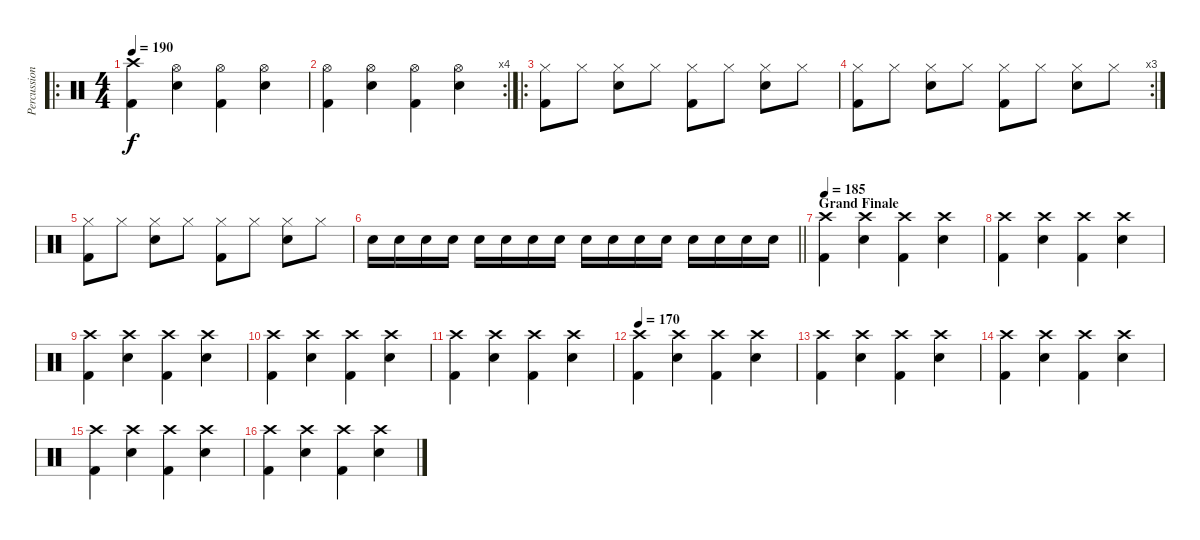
\track ("Percussion" "Percussion") {instrument percussion}
\staff {score}
\articulation defaults
\ro
\ts (4 4)
\tempo 190
\clef neutral
\ks c
("Crash high (hit)" "Kick (hit) 2").4{dy f} ("Hi-Hat (open)" "Snare (hit) 2").4 ("Hi-Hat (open)" "Kick (hit) 2").4 ("Hi-Hat (open)" "Snare (hit) 2").4 |
\rc 4
("Hi-Hat (open)" "Kick (hit) 2").4 ("Hi-Hat (open)" "Snare (hit) 2").4 ("Hi-Hat (open)" "Kick (hit) 2").4 ("Hi-Hat (open)" "Snare (hit) 2").4 |
\ro
("Hi-Hat (closed)" "Kick (hit) 2").8 "Hi-Hat (closed)".8 ("Hi-Hat (closed)" "Snare (hit) 2").8 "Hi-Hat (closed)".8 ("Hi-Hat (closed)" "Kick (hit) 2").8 "Hi-Hat (closed)".8 ("Hi-Hat (closed)" "Snare (hit) 2").8 "Hi-Hat (closed)".8 |
\rc 3
("Hi-Hat (closed)" "Kick (hit) 2").8 "Hi-Hat (closed)".8 ("Hi-Hat (closed)" "Snare (hit) 2").8 "Hi-Hat (closed)".8 ("Hi-Hat (closed)" "Kick (hit) 2").8 "Hi-Hat (closed)".8 ("Hi-Hat (closed)" "Snare (hit) 2").8 "Hi-Hat (closed)".8 |
("Hi-Hat (closed)" "Kick (hit) 2").8 "Hi-Hat (closed)".8 ("Hi-Hat (closed)" "Snare (hit) 2").8 "Hi-Hat (closed)".8 ("Hi-Hat (closed)" "Kick (hit) 2").8 "Hi-Hat (closed)".8 ("Hi-Hat (closed)" "Snare (hit) 2").8 "Hi-Hat (closed)".8 |
\barLineRight lightlight "Snare (hit) 2".16 "Snare (hit) 2".16 "Snare (hit) 2".16 "Snare (hit) 2".16 "Snare (hit) 2".16 "Snare (hit) 2".16 "Snare (hit) 2".16 "Snare (hit) 2".16 "Snare (hit) 2".16 "Snare (hit) 2".16 "Snare (hit) 2".16 "Snare (hit) 2".16 "Snare (hit) 2".16 "Snare (hit) 2".16 "Snare (hit) 2".16 "Snare (hit) 2".16
|
\section ("" "Grand Finale")
\tempo 185
("Crash high (hit)" "Kick (hit) 2").4 ("Crash high (hit)" "Snare (hit) 2").4 ("Crash high (hit)" "Kick (hit) 2").4 ("Crash high (hit)" "Snare (hit) 2").4 |
("Crash high (hit)" "Kick (hit) 2").4 ("Crash high (hit)" "Snare (hit) 2").4 ("Crash high (hit)" "Kick (hit) 2").4 ("Crash high (hit)" "Snare (hit) 2").4 |
("Crash high (hit)" "Kick (hit) 2").4 ("Crash high (hit)" "Snare (hit) 2").4 ("Crash high (hit)" "Kick (hit) 2").4 ("Crash high (hit)" "Snare (hit) 2").4 |
("Crash high (hit)" "Kick (hit) 2").4 ("Crash high (hit)" "Snare (hit) 2").4 ("Crash high (hit)" "Kick (hit) 2").4 ("Crash high (hit)" "Snare (hit) 2").4 |
("Crash high (hit)" "Kick (hit) 2").4 ("Crash high (hit)" "Snare (hit) 2").4 ("Crash high (hit)" "Kick (hit) 2").4 ("Crash high (hit)" "Snare (hit) 2").4 |
\tempo 170
("Crash high (hit)" "Kick (hit) 2").4 ("Crash high (hit)" "Snare (hit) 2").4 ("Crash high (hit)" "Kick (hit) 2").4 ("Crash high (hit)" "Snare (hit) 2").4 |
("Crash high (hit)" "Kick (hit) 2").4 ("Crash high (hit)" "Snare (hit) 2").4 ("Crash high (hit)" "Kick (hit) 2").4 ("Crash high (hit)" "Snare (hit) 2").4 |
("Crash high (hit)" "Kick (hit) 2").4 ("Crash high (hit)" "Snare (hit) 2").4 ("Crash high (hit)" "Kick (hit) 2").4 ("Crash high (hit)" "Snare (hit) 2").4 |
("Crash high (hit)" "Kick (hit) 2").4 ("Crash high (hit)" "Snare (hit) 2").4 ("Crash high (hit)" "Kick (hit) 2").4 ("Crash high (hit)" "Snare (hit) 2").4 |
("Crash high (hit)" "Kick (hit) 2").4 ("Crash high (hit)" "Snare (hit) 2").4 ("Crash high (hit)" "Kick (hit) 2").4 ("Crash high (hit)" "Snare (hit) 2").4
